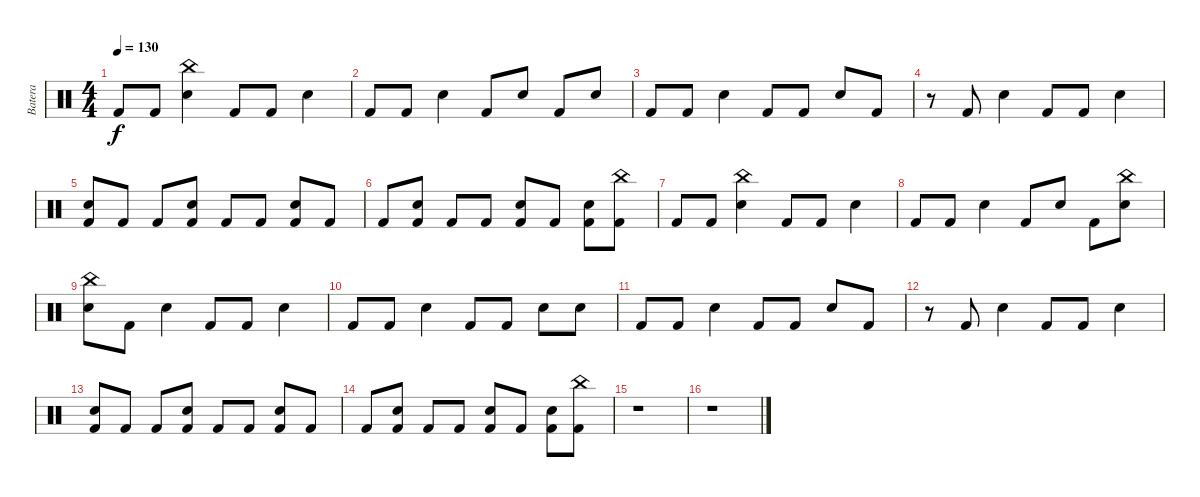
\track ("Batera" "Batera") {instrument percussion}
\staff {score}
\articulation defaults
\ts (4 4)
\tempo 130
\clef neutral
\ks c "Kick (hit) 2".8{dy f} "Kick (hit) 2".8
("Snare (hit) 2" "China (hit)").4 "Kick (hit) 2".8 "Kick (hit) 2".8 "Snare (hit) 2".4 |
"Kick (hit) 2".8 "Kick (hit) 2".8 "Snare (hit) 2".4 "Kick (hit) 2".8 "Snare (hit) 2".8 "Kick (hit) 2".8 "Snare (hit) 2".8 |
"Kick (hit) 2".8 "Kick (hit) 2".8 "Snare (hit) 2".4 "Kick (hit) 2".8 "Kick (hit) 2".8 "Snare (hit) 2".8 "Kick (hit) 2".8 |
r.8 "Kick (hit) 2".8 "Snare (hit) 2".4 "Kick (hit) 2".8 "Kick (hit) 2".8 "Snare (hit) 2".4 |
("Kick (hit) 2" "Snare (hit) 2").8 "Kick (hit) 2".8 "Kick (hit) 2".8 ("Kick (hit) 2" "Snare (hit) 2").8 "Kick (hit) 2".8 "Kick (hit) 2".8 ("Kick (hit) 2" "Snare (hit) 2").8 "Kick (hit) 2".8 |
"Kick (hit) 2".8 ("Kick (hit) 2" "Snare (hit) 2").8 "Kick (hit) 2".8 "Kick (hit) 2".8 ("Kick (hit) 2" "Snare (hit) 2").8 "Kick (hit) 2".8 ("Kick (hit) 2" "Snare (hit) 2").8 ("Kick (hit) 2" "China (hit)").8 |
"Kick (hit) 2".8 "Kick (hit) 2".8 ("Snare (hit) 2" "China (hit)").4 "Kick (hit) 2".8 "Kick (hit) 2".8 "Snare (hit) 2".4 |
"Kick (hit) 2".8 "Kick (hit) 2".8 "Snare (hit) 2".4 "Kick (hit) 2".8 "Snare (hit) 2".8 "Kick (hit) 2".8 ("Snare (hit) 2" "China (hit)").8 |
("Snare (hit) 2" "China (hit)").8 "Kick (hit) 2".8 "Snare (hit) 2".4 "Kick (hit) 2".8 "Kick (hit) 2".8 "Snare (hit) 2".4 |
"Kick (hit) 2".8 "Kick (hit) 2".8 "Snare (hit) 2".4 "Kick (hit) 2".8 "Kick (hit) 2".8 "Snare (hit) 2".8 "Snare (hit) 2".8 |
"Kick (hit) 2".8 "Kick (hit) 2".8 "Snare (hit) 2".4 "Kick (hit) 2".8 "Kick (hit) 2".8 "Snare (hit) 2".8 "Kick (hit) 2".8 |
r.8 "Kick (hit) 2".8 "Snare (hit) 2".4 "Kick (hit) 2".8 "Kick (hit) 2".8 "Snare (hit) 2".4 |
("Kick (hit) 2" "Snare (hit) 2").8 "Kick (hit) 2".8 "Kick (hit) 2".8 ("Kick (hit) 2" "Snare (hit) 2").8 "Kick (hit) 2".8 "Kick (hit) 2".8 ("Kick (hit) 2" "Snare (hit) 2").8 "Kick (hit) 2".8 |
"Kick (hit) 2".8 ("Kick (hit) 2" "Snare (hit) 2").8 "Kick (hit) 2".8 "Kick (hit) 2".8 ("Kick (hit) 2" "Snare (hit) 2").8 "Kick (hit) 2".8 ("Kick (hit) 2" "Snare (hit) 2").8 ("Kick (hit) 2" "China (hit)").8 |
r.1 |
r.1
